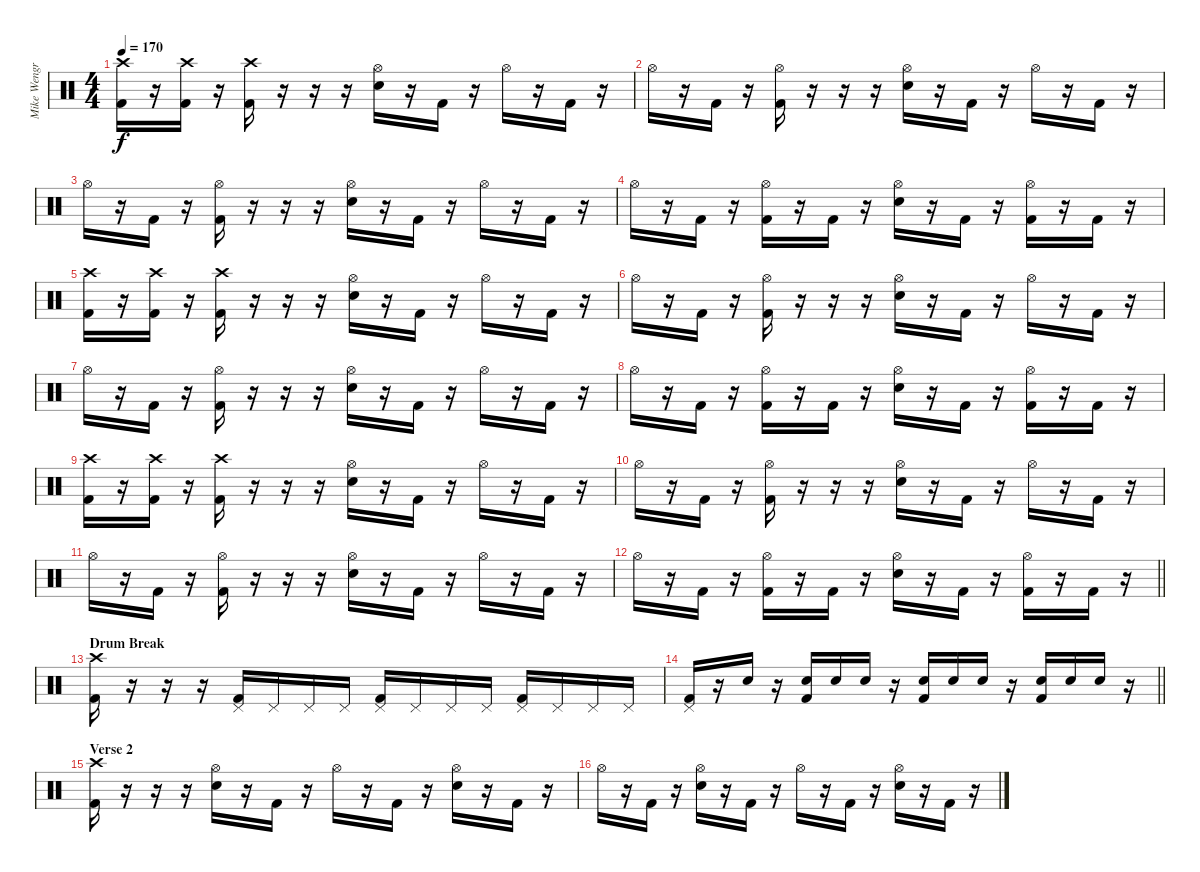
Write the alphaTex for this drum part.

\track ("Mike Wengren" "Mike Wengr") {instrument percussion}
\staff {score}
\articulation defaults
\ts (4 4)
\tempo 170
\clef neutral
\ks c
("Crash high (hit)" "Kick (hit) 2").16{dy f} r.16 ("Crash high (hit)" "Kick (hit) 2").16 r.16 ("Crash high (hit)" "Kick (hit) 2").16 r.16 r.16 r.16 ("Hi-Hat (open)" "Snare (hit) 2").16 r.16 "Kick (hit) 2".16 r.16 "Hi-Hat (open)".16 r.16 "Kick (hit) 2".16 r.16 |
"Hi-Hat (open)".16 r.16 "Kick (hit) 2".16 r.16 ("Hi-Hat (open)" "Kick (hit) 2").16 r.16 r.16 r.16 ("Hi-Hat (open)" "Snare (hit) 2").16 r.16 "Kick (hit) 2".16 r.16 "Hi-Hat (open)".16 r.16 "Kick (hit) 2".16 r.16 |
"Hi-Hat (open)".16 r.16 "Kick (hit) 2".16 r.16 ("Hi-Hat (open)" "Kick (hit) 2").16 r.16 r.16 r.16 ("Hi-Hat (open)" "Snare (hit) 2").16 r.16 "Kick (hit) 2".16 r.16 "Hi-Hat (open)".16 r.16 "Kick (hit) 2".16 r.16 |
"Hi-Hat (open)".16 r.16 "Kick (hit) 2".16 r.16 ("Hi-Hat (open)" "Kick (hit) 2").16 r.16 "Kick (hit) 2".16 r.16 ("Hi-Hat (open)" "Snare (hit) 2").16 r.16 "Kick (hit) 2".16 r.16 ("Hi-Hat (open)" "Kick (hit) 2").16 r.16 "Kick (hit) 2".16 r.16 |
("Crash high (hit)" "Kick (hit) 2").16 r.16 ("Crash high (hit)" "Kick (hit) 2").16 r.16 ("Crash high (hit)" "Kick (hit) 2").16 r.16 r.16 r.16 ("Hi-Hat (open)" "Snare (hit) 2").16 r.16 "Kick (hit) 2".16 r.16 "Hi-Hat (open)".16 r.16 "Kick (hit) 2".16 r.16 |
"Hi-Hat (open)".16 r.16 "Kick (hit) 2".16 r.16 ("Hi-Hat (open)" "Kick (hit) 2").16 r.16 r.16 r.16 ("Hi-Hat (open)" "Snare (hit) 2").16 r.16 "Kick (hit) 2".16 r.16 "Hi-Hat (open)".16 r.16 "Kick (hit) 2".16 r.16 |
"Hi-Hat (open)".16 r.16 "Kick (hit) 2".16 r.16 ("Hi-Hat (open)" "Kick (hit) 2").16 r.16 r.16 r.16 ("Hi-Hat (open)" "Snare (hit) 2").16 r.16 "Kick (hit) 2".16 r.16 "Hi-Hat (open)".16 r.16 "Kick (hit) 2".16 r.16 |
"Hi-Hat (open)".16 r.16 "Kick (hit) 2".16 r.16 ("Hi-Hat (open)" "Kick (hit) 2").16 r.16 "Kick (hit) 2".16 r.16 ("Hi-Hat (open)" "Snare (hit) 2").16 r.16 "Kick (hit) 2".16 r.16 ("Hi-Hat (open)" "Kick (hit) 2").16 r.16 "Kick (hit) 2".16 r.16 |
("Crash high (hit)" "Kick (hit) 2").16 r.16 ("Crash high (hit)" "Kick (hit) 2").16 r.16 ("Crash high (hit)" "Kick (hit) 2").16 r.16 r.16 r.16 ("Hi-Hat (open)" "Snare (hit) 2").16 r.16 "Kick (hit) 2".16 r.16 "Hi-Hat (open)".16 r.16 "Kick (hit) 2".16 r.16 |
"Hi-Hat (open)".16 r.16 "Kick (hit) 2".16 r.16 ("Hi-Hat (open)" "Kick (hit) 2").16 r.16 r.16 r.16 ("Hi-Hat (open)" "Snare (hit) 2").16 r.16 "Kick (hit) 2".16 r.16 "Hi-Hat (open)".16 r.16 "Kick (hit) 2".16 r.16 |
"Hi-Hat (open)".16 r.16 "Kick (hit) 2".16 r.16 ("Hi-Hat (open)" "Kick (hit) 2").16 r.16 r.16 r.16 ("Hi-Hat (open)" "Snare (hit) 2").16 r.16 "Kick (hit) 2".16 r.16 "Hi-Hat (open)".16 r.16 "Kick (hit) 2".16 r.16 |
\barLineRight lightlight "Hi-Hat (open)".16
r.16 "Kick (hit) 2".16 r.16 ("Hi-Hat (open)" "Kick (hit) 2").16 r.16 "Kick (hit) 2".16 r.16 ("Hi-Hat (open)" "Snare (hit) 2").16 r.16 "Kick (hit) 2".16 r.16 ("Hi-Hat (open)" "Kick (hit) 2").16 r.16 "Kick (hit) 2".16 r.16 |
\section ("" "Drum Break")
("Crash high (hit)" "Kick (hit) 2").16 r.16 r.16 r.16 ("Pedal Hi-Hat (hit)" "Kick (hit) 2").16 "Pedal Hi-Hat (hit)".16 "Pedal Hi-Hat (hit)".16 "Pedal Hi-Hat (hit)".16 ("Pedal Hi-Hat (hit)" "Kick (hit) 2").16 "Pedal Hi-Hat (hit)".16 "Pedal Hi-Hat (hit)".16 "Pedal Hi-Hat (hit)".16 ("Pedal Hi-Hat (hit)" "Kick (hit) 2").16 "Pedal Hi-Hat (hit)".16 "Pedal Hi-Hat (hit)".16 "Pedal Hi-Hat (hit)".16 |
\barLineRight lightlight
("Pedal Hi-Hat (hit)" "Kick (hit) 2").16 r.16 "Snare (hit) 2".16 r.16 ("Snare (hit) 2" "Kick (hit) 2").16 "Snare (hit) 2".16 "Snare (hit) 2".16 r.16 ("Snare (hit) 2" "Kick (hit) 2").16 "Snare (hit) 2".16 "Snare (hit) 2".16 r.16 ("Snare (hit) 2" "Kick (hit) 2").16 "Snare (hit) 2".16 "Snare (hit) 2".16 r.16 |
\section ("" "Verse 2")
("Crash high (hit)" "Kick (hit) 2").16 r.16 r.16 r.16 ("Hi-Hat (open)" "Snare (hit) 2").16 r.16 "Kick (hit) 2".16 r.16 "Hi-Hat (open)".16 r.16 "Kick (hit) 2".16 r.16 ("Hi-Hat (open)" "Snare (hit) 2").16 r.16 "Kick (hit) 2".16 r.16 |
"Hi-Hat (open)".16 r.16 "Kick (hit) 2".16 r.16 ("Hi-Hat (open)" "Snare (hit) 2").16 r.16 "Kick (hit) 2".16 r.16 "Hi-Hat (open)".16 r.16 "Kick (hit) 2".16 r.16 ("Hi-Hat (open)" "Snare (hit) 2").16 r.16 "Kick (hit) 2".16 r.16
